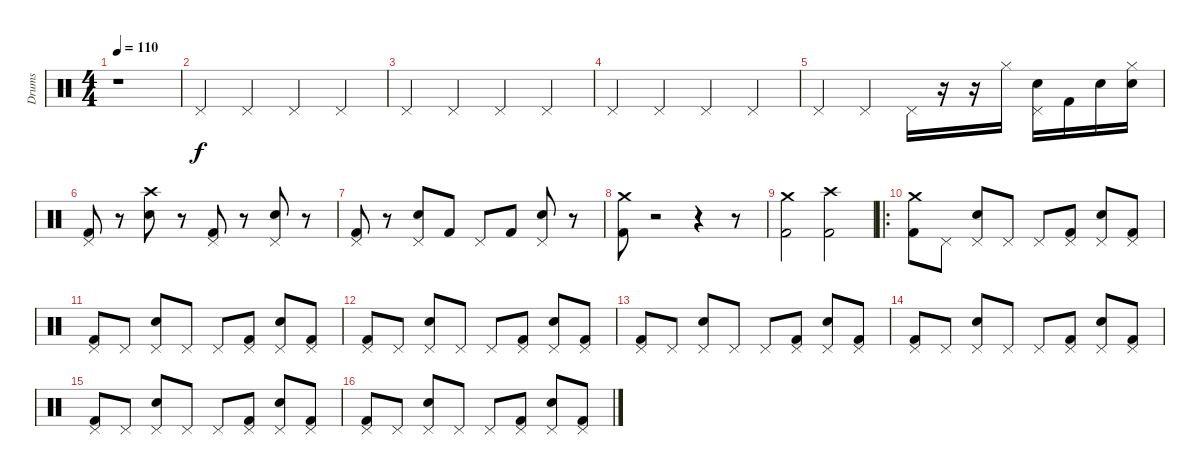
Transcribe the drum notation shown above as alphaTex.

\track ("Drums" "Drums") {instrument percussion}
\staff {score}
\articulation defaults
\ts (4 4)
\tempo 110
\clef neutral
\ks c
r.1{dy f} |
"Pedal Hi-Hat (hit)".4 "Pedal Hi-Hat (hit)".4 "Pedal Hi-Hat (hit)".4 "Pedal Hi-Hat (hit)".4 |
"Pedal Hi-Hat (hit)".4 "Pedal Hi-Hat (hit)".4 "Pedal Hi-Hat (hit)".4 "Pedal Hi-Hat (hit)".4 |
"Pedal Hi-Hat (hit)".4 "Pedal Hi-Hat (hit)".4 "Pedal Hi-Hat (hit)".4 "Pedal Hi-Hat (hit)".4 |
"Pedal Hi-Hat (hit)".4 "Pedal Hi-Hat (hit)".4 "Pedal Hi-Hat (hit)".16 r.16 r.16 "Hi-Hat (closed)".16 ("Pedal Hi-Hat (hit)" "Electric Snare (hit)").16 "Kick (hit) 2".16 "Snare (hit) 2".16 ("Hi-Hat (closed)" "Snare (hit) 2").16 |
("Pedal Hi-Hat (hit)" "Kick (hit) 2").8 r.8 ("Crash high (hit)" "Snare (hit) 2").8 r.8 ("Pedal Hi-Hat (hit)" "Kick (hit) 2").8 r.8 ("Pedal Hi-Hat (hit)" "Snare (hit) 2").8 r.8 |
("Pedal Hi-Hat (hit)" "Kick (hit) 2").8 r.8 ("Pedal Hi-Hat (hit)" "Snare (hit) 2").8 "Kick (hit) 2".8 "Pedal Hi-Hat (hit)".8 "Kick (hit) 2".8 ("Pedal Hi-Hat (hit)" "Snare (hit) 2").8 r.8 |
("Crash medium (hit)" "Kick (hit) 2").8 r.2 r.4 r.8 |
("Crash medium (hit)" "Kick (hit) 2").2 ("Crash high (hit)" "Kick (hit) 2").2 |
\ro
("Crash medium (hit)" "Kick (hit) 2").8 "Pedal Hi-Hat (hit)".8 ("Pedal Hi-Hat (hit)" "Snare (hit) 2").8 "Pedal Hi-Hat (hit)".8 "Pedal Hi-Hat (hit)".8 ("Pedal Hi-Hat (hit)" "Kick (hit) 2").8 ("Pedal Hi-Hat (hit)" "Snare (hit) 2").8 ("Pedal Hi-Hat (hit)" "Kick (hit) 2").8 |
("Pedal Hi-Hat (hit)" "Kick (hit) 2").8 "Pedal Hi-Hat (hit)".8 ("Pedal Hi-Hat (hit)" "Snare (hit) 2").8 "Pedal Hi-Hat (hit)".8 "Pedal Hi-Hat (hit)".8 ("Pedal Hi-Hat (hit)" "Kick (hit) 2").8 ("Pedal Hi-Hat (hit)" "Snare (hit) 2").8 ("Pedal Hi-Hat (hit)" "Kick (hit) 2").8 |
("Pedal Hi-Hat (hit)" "Kick (hit) 2").8 "Pedal Hi-Hat (hit)".8 ("Pedal Hi-Hat (hit)" "Snare (hit) 2").8 "Pedal Hi-Hat (hit)".8 "Pedal Hi-Hat (hit)".8 ("Pedal Hi-Hat (hit)" "Kick (hit) 2").8 ("Pedal Hi-Hat (hit)" "Snare (hit) 2").8 ("Pedal Hi-Hat (hit)" "Kick (hit) 2").8 |
("Pedal Hi-Hat (hit)" "Kick (hit) 2").8 "Pedal Hi-Hat (hit)".8 ("Pedal Hi-Hat (hit)" "Snare (hit) 2").8 "Pedal Hi-Hat (hit)".8 "Pedal Hi-Hat (hit)".8 ("Pedal Hi-Hat (hit)" "Kick (hit) 2").8 ("Pedal Hi-Hat (hit)" "Snare (hit) 2").8 ("Pedal Hi-Hat (hit)" "Kick (hit) 2").8 |
("Pedal Hi-Hat (hit)" "Kick (hit) 2").8 "Pedal Hi-Hat (hit)".8 ("Pedal Hi-Hat (hit)" "Snare (hit) 2").8 "Pedal Hi-Hat (hit)".8 "Pedal Hi-Hat (hit)".8 ("Pedal Hi-Hat (hit)" "Kick (hit) 2").8 ("Pedal Hi-Hat (hit)" "Snare (hit) 2").8 ("Pedal Hi-Hat (hit)" "Kick (hit) 2").8 |
("Pedal Hi-Hat (hit)" "Kick (hit) 2").8 "Pedal Hi-Hat (hit)".8 ("Pedal Hi-Hat (hit)" "Snare (hit) 2").8 "Pedal Hi-Hat (hit)".8 "Pedal Hi-Hat (hit)".8 ("Pedal Hi-Hat (hit)" "Kick (hit) 2").8 ("Pedal Hi-Hat (hit)" "Snare (hit) 2").8 ("Pedal Hi-Hat (hit)" "Kick (hit) 2").8 |
("Pedal Hi-Hat (hit)" "Kick (hit) 2").8 "Pedal Hi-Hat (hit)".8 ("Pedal Hi-Hat (hit)" "Snare (hit) 2").8 "Pedal Hi-Hat (hit)".8 "Pedal Hi-Hat (hit)".8 ("Pedal Hi-Hat (hit)" "Kick (hit) 2").8 ("Pedal Hi-Hat (hit)" "Snare (hit) 2").8 ("Pedal Hi-Hat (hit)" "Kick (hit) 2").8
